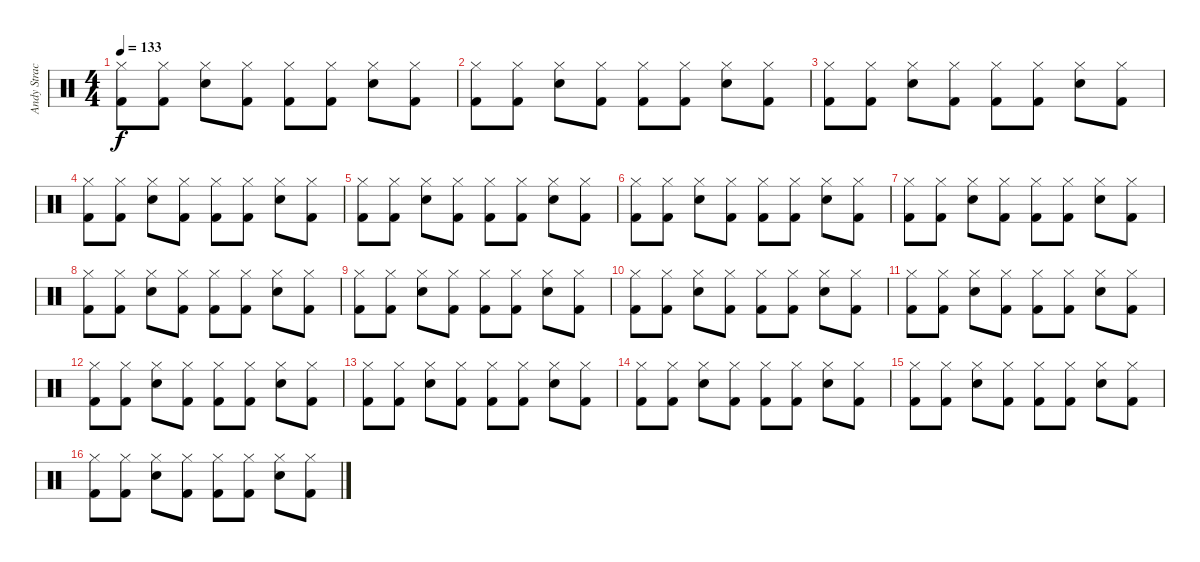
\track ("Andy Strachan" "Andy Strac") {instrument percussion}
\staff {score}
\articulation defaults
\ts (4 4)
\tempo 133
\clef neutral
\ks c
("Hi-Hat (closed)" "Kick (hit) 2").8{dy f} ("Hi-Hat (closed)" "Kick (hit) 2").8 ("Electric Snare (hit)" "Hi-Hat (closed)").8 ("Hi-Hat (closed)" "Kick (hit) 2").8 ("Hi-Hat (closed)" "Kick (hit) 2").8 ("Hi-Hat (closed)" "Kick (hit) 2").8 ("Electric Snare (hit)" "Hi-Hat (closed)").8 ("Hi-Hat (closed)" "Kick (hit) 2").8 |
("Hi-Hat (closed)" "Kick (hit) 2").8 ("Hi-Hat (closed)" "Kick (hit) 2").8 ("Electric Snare (hit)" "Hi-Hat (closed)").8 ("Hi-Hat (closed)" "Kick (hit) 2").8 ("Hi-Hat (closed)" "Kick (hit) 2").8 ("Hi-Hat (closed)" "Kick (hit) 2").8 ("Electric Snare (hit)" "Hi-Hat (closed)").8 ("Hi-Hat (closed)" "Kick (hit) 2").8 |
("Hi-Hat (closed)" "Kick (hit) 2").8 ("Hi-Hat (closed)" "Kick (hit) 2").8 ("Electric Snare (hit)" "Hi-Hat (closed)").8 ("Hi-Hat (closed)" "Kick (hit) 2").8 ("Hi-Hat (closed)" "Kick (hit) 2").8 ("Hi-Hat (closed)" "Kick (hit) 2").8 ("Electric Snare (hit)" "Hi-Hat (closed)").8 ("Hi-Hat (closed)" "Kick (hit) 2").8 |
("Hi-Hat (closed)" "Kick (hit) 2").8 ("Hi-Hat (closed)" "Kick (hit) 2").8 ("Electric Snare (hit)" "Hi-Hat (closed)").8 ("Hi-Hat (closed)" "Kick (hit) 2").8 ("Hi-Hat (closed)" "Kick (hit) 2").8 ("Hi-Hat (closed)" "Kick (hit) 2").8 ("Electric Snare (hit)" "Hi-Hat (closed)").8 ("Hi-Hat (closed)" "Kick (hit) 2").8 |
("Hi-Hat (closed)" "Kick (hit) 2").8 ("Hi-Hat (closed)" "Kick (hit) 2").8 ("Electric Snare (hit)" "Hi-Hat (closed)").8 ("Hi-Hat (closed)" "Kick (hit) 2").8 ("Hi-Hat (closed)" "Kick (hit) 2").8 ("Hi-Hat (closed)" "Kick (hit) 2").8 ("Electric Snare (hit)" "Hi-Hat (closed)").8 ("Hi-Hat (closed)" "Kick (hit) 2").8 |
("Hi-Hat (closed)" "Kick (hit) 2").8 ("Hi-Hat (closed)" "Kick (hit) 2").8 ("Electric Snare (hit)" "Hi-Hat (closed)").8 ("Hi-Hat (closed)" "Kick (hit) 2").8 ("Hi-Hat (closed)" "Kick (hit) 2").8 ("Hi-Hat (closed)" "Kick (hit) 2").8 ("Electric Snare (hit)" "Hi-Hat (closed)").8 ("Hi-Hat (closed)" "Kick (hit) 2").8 |
("Hi-Hat (closed)" "Kick (hit) 2").8 ("Hi-Hat (closed)" "Kick (hit) 2").8 ("Electric Snare (hit)" "Hi-Hat (closed)").8 ("Hi-Hat (closed)" "Kick (hit) 2").8 ("Hi-Hat (closed)" "Kick (hit) 2").8 ("Hi-Hat (closed)" "Kick (hit) 2").8 ("Electric Snare (hit)" "Hi-Hat (closed)").8 ("Hi-Hat (closed)" "Kick (hit) 2").8 |
("Hi-Hat (closed)" "Kick (hit) 2").8 ("Hi-Hat (closed)" "Kick (hit) 2").8 ("Electric Snare (hit)" "Hi-Hat (closed)").8 ("Hi-Hat (closed)" "Kick (hit) 2").8 ("Hi-Hat (closed)" "Kick (hit) 2").8 ("Hi-Hat (closed)" "Kick (hit) 2").8 ("Electric Snare (hit)" "Hi-Hat (closed)").8 ("Hi-Hat (closed)" "Kick (hit) 2").8 |
("Hi-Hat (closed)" "Kick (hit) 2").8 ("Hi-Hat (closed)" "Kick (hit) 2").8 ("Electric Snare (hit)" "Hi-Hat (closed)").8 ("Hi-Hat (closed)" "Kick (hit) 2").8 ("Hi-Hat (closed)" "Kick (hit) 2").8 ("Hi-Hat (closed)" "Kick (hit) 2").8 ("Electric Snare (hit)" "Hi-Hat (closed)").8 ("Hi-Hat (closed)" "Kick (hit) 2").8 |
("Hi-Hat (closed)" "Kick (hit) 2").8 ("Hi-Hat (closed)" "Kick (hit) 2").8 ("Electric Snare (hit)" "Hi-Hat (closed)").8 ("Hi-Hat (closed)" "Kick (hit) 2").8 ("Hi-Hat (closed)" "Kick (hit) 2").8 ("Hi-Hat (closed)" "Kick (hit) 2").8 ("Electric Snare (hit)" "Hi-Hat (closed)").8 ("Hi-Hat (closed)" "Kick (hit) 2").8 |
("Hi-Hat (closed)" "Kick (hit) 2").8 ("Hi-Hat (closed)" "Kick (hit) 2").8 ("Electric Snare (hit)" "Hi-Hat (closed)").8 ("Hi-Hat (closed)" "Kick (hit) 2").8 ("Hi-Hat (closed)" "Kick (hit) 2").8 ("Hi-Hat (closed)" "Kick (hit) 2").8 ("Electric Snare (hit)" "Hi-Hat (closed)").8 ("Hi-Hat (closed)" "Kick (hit) 2").8 |
("Hi-Hat (closed)" "Kick (hit) 2").8 ("Hi-Hat (closed)" "Kick (hit) 2").8 ("Electric Snare (hit)" "Hi-Hat (closed)").8 ("Hi-Hat (closed)" "Kick (hit) 2").8 ("Hi-Hat (closed)" "Kick (hit) 2").8 ("Hi-Hat (closed)" "Kick (hit) 2").8 ("Electric Snare (hit)" "Hi-Hat (closed)").8 ("Hi-Hat (closed)" "Kick (hit) 2").8 |
("Hi-Hat (closed)" "Kick (hit) 2").8 ("Hi-Hat (closed)" "Kick (hit) 2").8 ("Electric Snare (hit)" "Hi-Hat (closed)").8 ("Hi-Hat (closed)" "Kick (hit) 2").8 ("Hi-Hat (closed)" "Kick (hit) 2").8 ("Hi-Hat (closed)" "Kick (hit) 2").8 ("Electric Snare (hit)" "Hi-Hat (closed)").8 ("Hi-Hat (closed)" "Kick (hit) 2").8 |
("Hi-Hat (closed)" "Kick (hit) 2").8 ("Hi-Hat (closed)" "Kick (hit) 2").8 ("Electric Snare (hit)" "Hi-Hat (closed)").8 ("Hi-Hat (closed)" "Kick (hit) 2").8 ("Hi-Hat (closed)" "Kick (hit) 2").8 ("Hi-Hat (closed)" "Kick (hit) 2").8 ("Electric Snare (hit)" "Hi-Hat (closed)").8 ("Hi-Hat (closed)" "Kick (hit) 2").8 |
("Hi-Hat (closed)" "Kick (hit) 2").8 ("Hi-Hat (closed)" "Kick (hit) 2").8 ("Electric Snare (hit)" "Hi-Hat (closed)").8 ("Hi-Hat (closed)" "Kick (hit) 2").8 ("Hi-Hat (closed)" "Kick (hit) 2").8 ("Hi-Hat (closed)" "Kick (hit) 2").8 ("Electric Snare (hit)" "Hi-Hat (closed)").8 ("Hi-Hat (closed)" "Kick (hit) 2").8 |
("Hi-Hat (closed)" "Kick (hit) 2").8 ("Hi-Hat (closed)" "Kick (hit) 2").8 ("Electric Snare (hit)" "Hi-Hat (closed)").8 ("Hi-Hat (closed)" "Kick (hit) 2").8 ("Hi-Hat (closed)" "Kick (hit) 2").8 ("Hi-Hat (closed)" "Kick (hit) 2").8 ("Electric Snare (hit)" "Hi-Hat (closed)").8 ("Hi-Hat (closed)" "Kick (hit) 2").8
